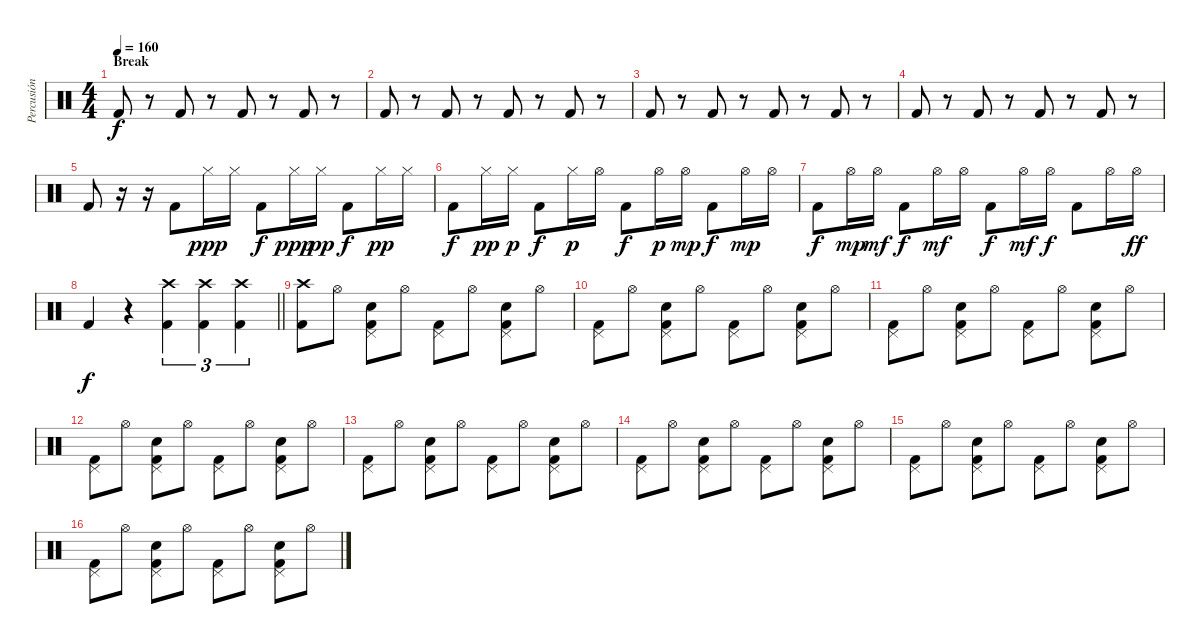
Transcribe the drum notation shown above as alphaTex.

\track ("Percusión" "Percusión") {instrument percussion}
\staff {score}
\articulation defaults
\ts (4 4)
\section ("" "Break")
\tempo 160
\clef neutral
\ks c "Kick (hit) 2".8{dy f}
r.8 "Kick (hit) 2".8 r.8 "Kick (hit) 2".8 r.8 "Kick (hit) 2".8 r.8 |
"Kick (hit) 2".8 r.8 "Kick (hit) 2".8 r.8 "Kick (hit) 2".8 r.8 "Kick (hit) 2".8 r.8 |
"Kick (hit) 2".8 r.8 "Kick (hit) 2".8 r.8 "Kick (hit) 2".8 r.8 "Kick (hit) 2".8 r.8 |
"Kick (hit) 2".8 r.8 "Kick (hit) 2".8 r.8 "Kick (hit) 2".8 r.8 "Kick (hit) 2".8 r.8 |
"Kick (hit) 2".8 r.16 r.16 "Kick (hit) 2".8 "Hi-Hat (closed)".16{dy ppp} "Hi-Hat (closed)".16 "Kick (hit) 2".8{dy f} "Hi-Hat (closed)".16{dy ppp} "Hi-Hat (closed)".16{dy pp} "Kick (hit) 2".8{dy f} "Hi-Hat (closed)".16{dy pp} "Hi-Hat (closed)".16 |
"Kick (hit) 2".8{dy f} "Hi-Hat (closed)".16{dy pp} "Hi-Hat (closed)".16{dy p} "Kick (hit) 2".8{dy f} "Hi-Hat (closed)".16{dy p} "Hi-Hat (open)".16 "Kick (hit) 2".8{dy f} "Hi-Hat (open)".16{dy p} "Hi-Hat (open)".16{dy mp} "Kick (hit) 2".8{dy f} "Hi-Hat (open)".16{dy mp} "Hi-Hat (open)".16 |
"Kick (hit) 2".8{dy f} "Hi-Hat (open)".16{dy mp} "Hi-Hat (open)".16{dy mf} "Kick (hit) 2".8{dy f} "Hi-Hat (open)".16{dy mf} "Hi-Hat (open)".16 "Kick (hit) 2".8{dy f} "Hi-Hat (open)".16{dy mf} "Hi-Hat (open)".16{dy f} "Kick (hit) 2".8 "Hi-Hat (open)".16 "Hi-Hat (open)".16{dy ff} |
\barLineRight lightlight "Kick (hit) 2".4{dy f}
r.4 ("Crash high (hit)" "Kick (hit) 2").4{tu (3 2)} ("Crash high (hit)" "Kick (hit) 2").4{tu (3 2)} ("Crash high (hit)" "Kick (hit) 2").4{tu (3 2)} |
("Crash high (hit)" "Kick (hit) 2").8 "Hi-Hat (open)".8 ("Pedal Hi-Hat (hit)" "Snare (hit) 2" "Kick (hit) 2").8 "Hi-Hat (open)".8 ("Pedal Hi-Hat (hit)" "Kick (hit) 2").8 "Hi-Hat (open)".8 ("Pedal Hi-Hat (hit)" "Snare (hit) 2" "Kick (hit) 2").8 "Hi-Hat (open)".8 |
("Pedal Hi-Hat (hit)" "Kick (hit) 2").8 "Hi-Hat (open)".8 ("Pedal Hi-Hat (hit)" "Snare (hit) 2" "Kick (hit) 2").8 "Hi-Hat (open)".8 ("Pedal Hi-Hat (hit)" "Kick (hit) 2").8 "Hi-Hat (open)".8 ("Pedal Hi-Hat (hit)" "Snare (hit) 2" "Kick (hit) 2").8 "Hi-Hat (open)".8 |
("Pedal Hi-Hat (hit)" "Kick (hit) 2").8 "Hi-Hat (open)".8 ("Pedal Hi-Hat (hit)" "Snare (hit) 2" "Kick (hit) 2").8 "Hi-Hat (open)".8 ("Pedal Hi-Hat (hit)" "Kick (hit) 2").8 "Hi-Hat (open)".8 ("Pedal Hi-Hat (hit)" "Snare (hit) 2" "Kick (hit) 2").8 "Hi-Hat (open)".8 |
("Pedal Hi-Hat (hit)" "Kick (hit) 2").8 "Hi-Hat (open)".8 ("Pedal Hi-Hat (hit)" "Snare (hit) 2" "Kick (hit) 2").8 "Hi-Hat (open)".8 ("Pedal Hi-Hat (hit)" "Kick (hit) 2").8 "Hi-Hat (open)".8 ("Pedal Hi-Hat (hit)" "Snare (hit) 2" "Kick (hit) 2").8 "Hi-Hat (open)".8 |
("Pedal Hi-Hat (hit)" "Kick (hit) 2").8 "Hi-Hat (open)".8 ("Pedal Hi-Hat (hit)" "Snare (hit) 2" "Kick (hit) 2").8 "Hi-Hat (open)".8 ("Pedal Hi-Hat (hit)" "Kick (hit) 2").8 "Hi-Hat (open)".8 ("Pedal Hi-Hat (hit)" "Snare (hit) 2" "Kick (hit) 2").8 "Hi-Hat (open)".8 |
("Pedal Hi-Hat (hit)" "Kick (hit) 2").8 "Hi-Hat (open)".8 ("Pedal Hi-Hat (hit)" "Snare (hit) 2" "Kick (hit) 2").8 "Hi-Hat (open)".8 ("Pedal Hi-Hat (hit)" "Kick (hit) 2").8 "Hi-Hat (open)".8 ("Pedal Hi-Hat (hit)" "Snare (hit) 2" "Kick (hit) 2").8 "Hi-Hat (open)".8 |
("Pedal Hi-Hat (hit)" "Kick (hit) 2").8 "Hi-Hat (open)".8 ("Pedal Hi-Hat (hit)" "Snare (hit) 2" "Kick (hit) 2").8 "Hi-Hat (open)".8 ("Pedal Hi-Hat (hit)" "Kick (hit) 2").8 "Hi-Hat (open)".8 ("Pedal Hi-Hat (hit)" "Snare (hit) 2" "Kick (hit) 2").8 "Hi-Hat (open)".8 |
("Pedal Hi-Hat (hit)" "Kick (hit) 2").8 "Hi-Hat (open)".8 ("Pedal Hi-Hat (hit)" "Snare (hit) 2" "Kick (hit) 2").8 "Hi-Hat (open)".8 ("Pedal Hi-Hat (hit)" "Kick (hit) 2").8 "Hi-Hat (open)".8 ("Pedal Hi-Hat (hit)" "Snare (hit) 2" "Kick (hit) 2").8 "Hi-Hat (open)".8
